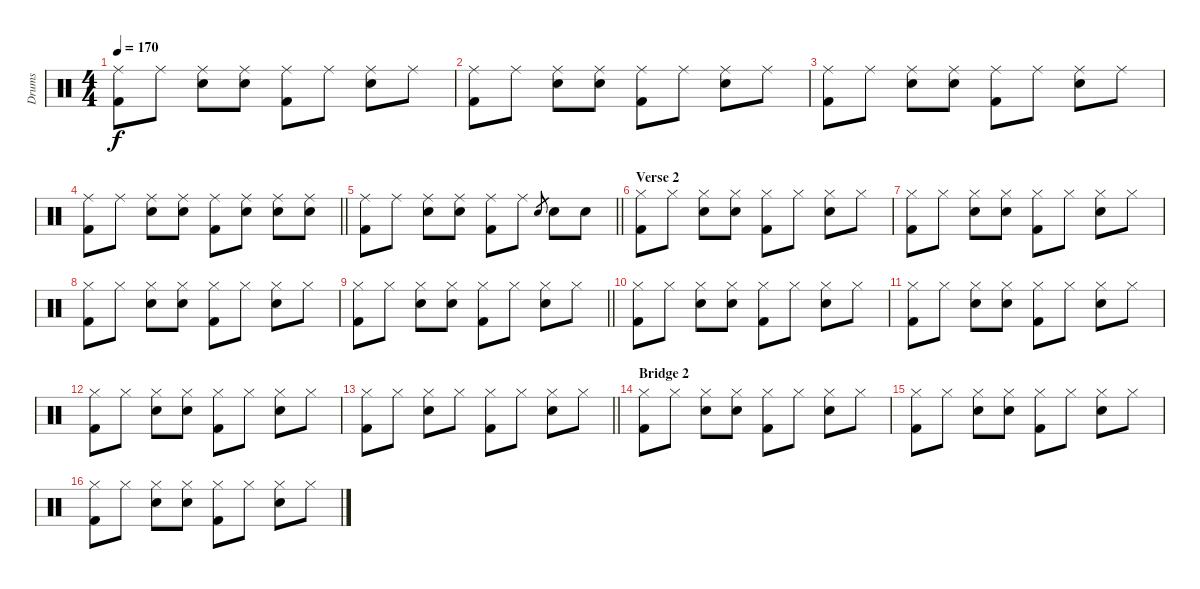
\track ("Drums" "Drums") {instrument percussion}
\staff {score}
\articulation defaults
\ts (4 4)
\tempo 170
\clef neutral
\ks c
("Ride (middle)" "Kick (hit) 2").8{dy f} "Ride (middle)".8 ("Ride (middle)" "Snare (hit) 2").8 ("Ride (middle)" "Snare (hit) 2").8 ("Ride (middle)" "Kick (hit) 2").8 "Ride (middle)".8 ("Ride (middle)" "Snare (hit) 2").8 "Ride (middle)".8 |
("Ride (middle)" "Kick (hit) 2").8 "Ride (middle)".8 ("Ride (middle)" "Snare (hit) 2").8 ("Ride (middle)" "Snare (hit) 2").8 ("Ride (middle)" "Kick (hit) 2").8 "Ride (middle)".8 ("Ride (middle)" "Snare (hit) 2").8 "Ride (middle)".8 |
("Ride (middle)" "Kick (hit) 2").8 "Ride (middle)".8 ("Ride (middle)" "Snare (hit) 2").8 ("Ride (middle)" "Snare (hit) 2").8 ("Ride (middle)" "Kick (hit) 2").8 "Ride (middle)".8 ("Ride (middle)" "Snare (hit) 2").8 "Ride (middle)".8 |
\barLineRight lightlight
("Ride (middle)" "Kick (hit) 2").8 "Ride (middle)".8 ("Ride (middle)" "Snare (hit) 2").8 ("Ride (middle)" "Snare (hit) 2").8 ("Ride (middle)" "Kick (hit) 2").8 ("Ride (middle)" "Snare (hit) 2").8 ("Ride (middle)" "Snare (hit) 2").8 ("Ride (middle)" "Snare (hit) 2").8 |
\barLineRight lightlight
("Ride (middle)" "Kick (hit) 2").8 "Ride (middle)".8 ("Ride (middle)" "Snare (hit) 2").8 ("Ride (middle)" "Snare (hit) 2").8 ("Ride (middle)" "Kick (hit) 2").8 "Ride (middle)".8 "Snare (hit) 2".8{gr} "Snare (hit) 2".8 "Snare (hit) 2".8 |
\section ("" "Verse 2")
("Hi-Hat (closed)" "Kick (hit) 2").8 "Hi-Hat (closed)".8 ("Hi-Hat (closed)" "Snare (hit) 2").8 ("Hi-Hat (closed)" "Snare (hit) 2").8 ("Hi-Hat (closed)" "Kick (hit) 2").8 "Hi-Hat (closed)".8 ("Hi-Hat (closed)" "Snare (hit) 2").8 "Hi-Hat (closed)".8 |
("Hi-Hat (closed)" "Kick (hit) 2").8 "Hi-Hat (closed)".8 ("Hi-Hat (closed)" "Snare (hit) 2").8 ("Hi-Hat (closed)" "Snare (hit) 2").8 ("Hi-Hat (closed)" "Kick (hit) 2").8 "Hi-Hat (closed)".8 ("Hi-Hat (closed)" "Snare (hit) 2").8 "Hi-Hat (closed)".8 |
("Hi-Hat (closed)" "Kick (hit) 2").8 "Hi-Hat (closed)".8 ("Hi-Hat (closed)" "Snare (hit) 2").8 ("Hi-Hat (closed)" "Snare (hit) 2").8 ("Hi-Hat (closed)" "Kick (hit) 2").8 "Hi-Hat (closed)".8 ("Hi-Hat (closed)" "Snare (hit) 2").8 "Hi-Hat (closed)".8 |
\barLineRight lightlight
("Hi-Hat (closed)" "Kick (hit) 2").8 "Hi-Hat (closed)".8 ("Hi-Hat (closed)" "Snare (hit) 2").8 ("Hi-Hat (closed)" "Snare (hit) 2").8 ("Hi-Hat (closed)" "Kick (hit) 2").8 "Hi-Hat (closed)".8 ("Hi-Hat (closed)" "Snare (hit) 2").8 "Hi-Hat (closed)".8 |
("Hi-Hat (closed)" "Kick (hit) 2").8 "Hi-Hat (closed)".8 ("Hi-Hat (closed)" "Snare (hit) 2").8 ("Hi-Hat (closed)" "Snare (hit) 2").8 ("Hi-Hat (closed)" "Kick (hit) 2").8 "Hi-Hat (closed)".8 ("Hi-Hat (closed)" "Snare (hit) 2").8 "Hi-Hat (closed)".8 |
("Hi-Hat (closed)" "Kick (hit) 2").8 "Hi-Hat (closed)".8 ("Hi-Hat (closed)" "Snare (hit) 2").8 ("Hi-Hat (closed)" "Snare (hit) 2").8 ("Hi-Hat (closed)" "Kick (hit) 2").8 "Hi-Hat (closed)".8 ("Hi-Hat (closed)" "Snare (hit) 2").8 "Hi-Hat (closed)".8 |
("Hi-Hat (closed)" "Kick (hit) 2").8 "Hi-Hat (closed)".8 ("Hi-Hat (closed)" "Snare (hit) 2").8 ("Hi-Hat (closed)" "Snare (hit) 2").8 ("Hi-Hat (closed)" "Kick (hit) 2").8 "Hi-Hat (closed)".8 ("Hi-Hat (closed)" "Snare (hit) 2").8 "Hi-Hat (closed)".8 |
\barLineRight lightlight
("Hi-Hat (closed)" "Kick (hit) 2").8 "Hi-Hat (closed)".8 ("Hi-Hat (closed)" "Snare (hit) 2").8 "Hi-Hat (closed)".8 ("Hi-Hat (closed)" "Kick (hit) 2").8 "Hi-Hat (closed)".8 ("Hi-Hat (closed)" "Snare (hit) 2").8 "Hi-Hat (closed)".8 |
\section ("" "Bridge 2")
("Hi-Hat (closed)" "Kick (hit) 2").8 "Hi-Hat (closed)".8 ("Hi-Hat (closed)" "Snare (hit) 2").8 ("Hi-Hat (closed)" "Snare (hit) 2").8 ("Hi-Hat (closed)" "Kick (hit) 2").8 "Hi-Hat (closed)".8 ("Hi-Hat (closed)" "Snare (hit) 2").8 "Hi-Hat (closed)".8 |
("Hi-Hat (closed)" "Kick (hit) 2").8 "Hi-Hat (closed)".8 ("Hi-Hat (closed)" "Snare (hit) 2").8 ("Hi-Hat (closed)" "Snare (hit) 2").8 ("Hi-Hat (closed)" "Kick (hit) 2").8 "Hi-Hat (closed)".8 ("Hi-Hat (closed)" "Snare (hit) 2").8 "Hi-Hat (closed)".8 |
("Hi-Hat (closed)" "Kick (hit) 2").8 "Hi-Hat (closed)".8 ("Hi-Hat (closed)" "Snare (hit) 2").8 ("Hi-Hat (closed)" "Snare (hit) 2").8 ("Hi-Hat (closed)" "Kick (hit) 2").8 "Hi-Hat (closed)".8 ("Hi-Hat (closed)" "Snare (hit) 2").8 "Hi-Hat (closed)".8
